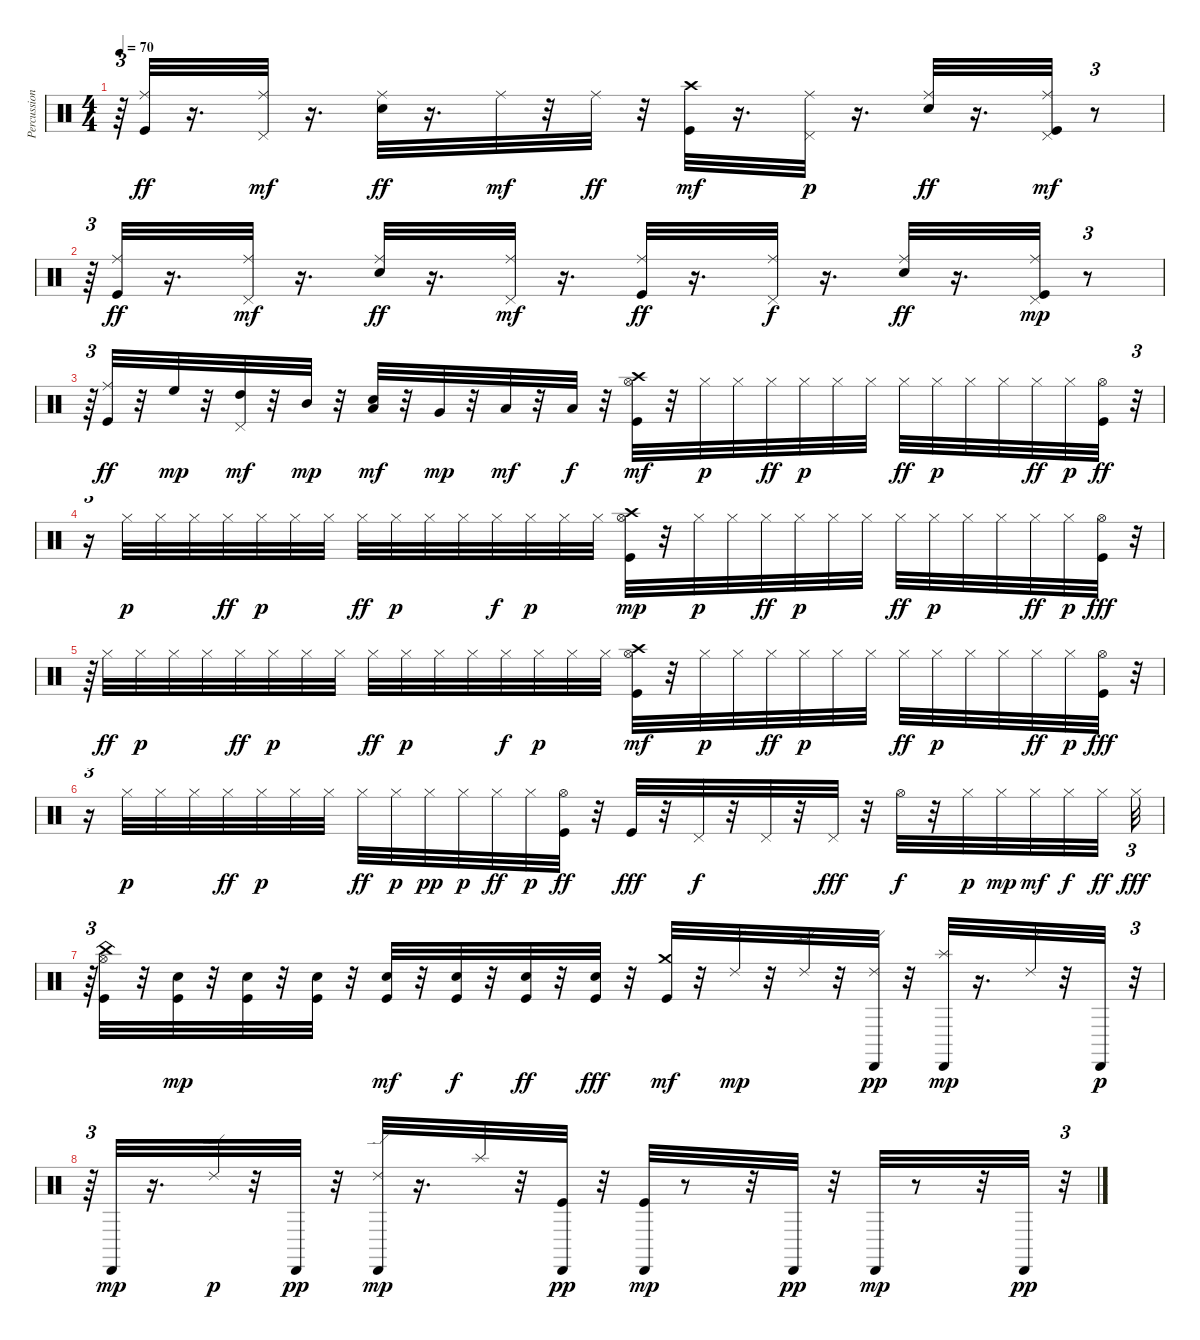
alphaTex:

\track ("Percussioni" "Percussion") {instrument percussion}
\staff {score}
\articulation defaults
\ts (4 4)
\tempo 70
\clef neutral
\ks c
r.64{tu (3 2) dy mp} ("Kick (hit)" "Ride (middle)").32{dy ff} r.16{d} ("Pedal Hi-Hat (hit)" "Ride (middle)").32{dy mf} r.16{d} ("Electric Snare (hit)" "Ride (middle)").32{dy ff} r.16{d} "Ride (middle)".32{dy mf} r.32 "Ride (middle)".32{dy ff} r.32 ("Kick (hit)" "Crash high (hit)").32{dy mf} r.16{d} ("Pedal Hi-Hat (hit)" "Ride (middle)").32{dy p} r.16{d} ("Electric Snare (hit)" "Ride (middle)").32{dy ff} r.16{d} ("Kick (hit)" "Pedal Hi-Hat (hit)" "Ride (middle)").32{dy mf} r.8{tu (3 2)} |
r.64{tu (3 2)} ("Kick (hit)" "Ride (middle)").32{dy ff} r.16{d} ("Pedal Hi-Hat (hit)" "Ride (middle)").32{dy mf} r.16{d} ("Electric Snare (hit)" "Ride (middle)").32{dy ff} r.16{d} ("Pedal Hi-Hat (hit)" "Ride (middle)").32{dy mf} r.16{d} ("Kick (hit)" "Ride (middle)").32{dy ff} r.16{d} ("Pedal Hi-Hat (hit)" "Ride (middle)").32{dy f} r.16{d} ("Electric Snare (hit)" "Ride (middle)").32{dy ff} r.16{d} ("Kick (hit)" "Pedal Hi-Hat (hit)" "Ride (middle)").32{dy mp} r.8{tu (3 2)} |
r.64{tu (3 2)} ("Kick (hit)" "Ride (middle)").32{dy ff} r.32 "High Floor Tom (hit)".32{dy mp} r.32 ("Pedal Hi-Hat (hit)" "High Tom (hit)").32{dy mf} r.32 "Mid Tom (hit)".32{dy mp} r.32 ("Electric Snare (hit)" "Low Tom (hit)").32{dy mf} r.32 "Very Low Tom (hit)".32{dy mp} r.32 "Low Floor Tom (hit)".32{dy mf} r.32 "Low Floor Tom (hit)".32{dy f} r.32 ("Kick (hit)" "Hi-Hat (open)" "Crash high (hit)").32{dy mf} r.32 "Hi-Hat (closed)".32{dy p} "Hi-Hat (closed)".32 "Hi-Hat (closed)".32{dy ff} "Hi-Hat (closed)".32{dy p} "Hi-Hat (closed)".32 "Hi-Hat (closed)".32 "Hi-Hat (closed)".32{dy ff} "Hi-Hat (closed)".32{dy p} "Hi-Hat (closed)".32 "Hi-Hat (closed)".32 "Hi-Hat (closed)".32{dy ff} "Hi-Hat (closed)".32{dy p} ("Kick (hit)" "Hi-Hat (open)").32{dy ff} r.32{tu (3 2)} |
r.16{tu (3 2)} "Hi-Hat (closed)".32{dy p} "Hi-Hat (closed)".32 "Hi-Hat (closed)".32 "Hi-Hat (closed)".32{dy ff} "Hi-Hat (closed)".32{dy p} "Hi-Hat (closed)".32 "Hi-Hat (closed)".32 "Hi-Hat (closed)".32{dy ff} "Hi-Hat (closed)".32{dy p} "Hi-Hat (closed)".32 "Hi-Hat (closed)".32 "Hi-Hat (closed)".32{dy f} "Hi-Hat (closed)".32{dy p} "Hi-Hat (closed)".32 "Hi-Hat (closed)".32 ("Kick (hit)" "Hi-Hat (open)" "Crash high (hit)").32{dy mp} r.32 "Hi-Hat (closed)".32{dy p} "Hi-Hat (closed)".32 "Hi-Hat (closed)".32{dy ff} "Hi-Hat (closed)".32{dy p} "Hi-Hat (closed)".32 "Hi-Hat (closed)".32 "Hi-Hat (closed)".32{dy ff} "Hi-Hat (closed)".32{dy p} "Hi-Hat (closed)".32 "Hi-Hat (closed)".32 "Hi-Hat (closed)".32{dy ff} "Hi-Hat (closed)".32{dy p} ("Kick (hit)" "Hi-Hat (open)").32{dy fff} r.32{tu (3 2)} |
r.64{tu (3 2)} "Hi-Hat (closed)".32{dy ff} "Hi-Hat (closed)".32{dy p} "Hi-Hat (closed)".32 "Hi-Hat (closed)".32 "Hi-Hat (closed)".32{dy ff} "Hi-Hat (closed)".32{dy p} "Hi-Hat (closed)".32 "Hi-Hat (closed)".32 "Hi-Hat (closed)".32{dy ff} "Hi-Hat (closed)".32{dy p} "Hi-Hat (closed)".32 "Hi-Hat (closed)".32 "Hi-Hat (closed)".32{dy f} "Hi-Hat (closed)".32{dy p} "Hi-Hat (closed)".32 "Hi-Hat (closed)".32 ("Kick (hit)" "Hi-Hat (open)" "Crash high (hit)").32{dy mf} r.32 "Hi-Hat (closed)".32{dy p} "Hi-Hat (closed)".32 "Hi-Hat (closed)".32{dy ff} "Hi-Hat (closed)".32{dy p} "Hi-Hat (closed)".32 "Hi-Hat (closed)".32 "Hi-Hat (closed)".32{dy ff} "Hi-Hat (closed)".32{dy p} "Hi-Hat (closed)".32 "Hi-Hat (closed)".32 "Hi-Hat (closed)".32{dy ff} "Hi-Hat (closed)".32{dy p} ("Kick (hit)" "Hi-Hat (open)").32{dy fff} r.32{tu (3 2)} |
r.16{tu (3 2)} "Hi-Hat (closed)".32{dy p} "Hi-Hat (closed)".32 "Hi-Hat (closed)".32 "Hi-Hat (closed)".32{dy ff} "Hi-Hat (closed)".32{dy p} "Hi-Hat (closed)".32 "Hi-Hat (closed)".32 "Hi-Hat (closed)".32{dy ff} "Hi-Hat (closed)".32{dy p} "Hi-Hat (closed)".32{dy pp} "Hi-Hat (closed)".32{dy p} "Hi-Hat (closed)".32{dy ff} "Hi-Hat (closed)".32{dy p} ("Kick (hit)" "Hi-Hat (open)").32{dy ff} r.32 "Kick (hit)".32{dy fff} r.32 "Pedal Hi-Hat (hit)".32{dy f} r.32 "Pedal Hi-Hat (hit)".32 r.32 "Pedal Hi-Hat (hit)".32{dy fff} r.32 "Hi-Hat (open)".32{dy f} r.32 "Hi-Hat (closed)".32{dy p} "Hi-Hat (closed)".32{dy mp} "Hi-Hat (closed)".32{dy mf} "Hi-Hat (closed)".32{dy f} "Hi-Hat (closed)".32{dy ff} "Hi-Hat (closed)".32{tu (3 2) dy fff} |
r.64{tu (3 2)} ("Kick (hit)" "Hi-Hat (open)" "China (hit)").32 r.32 ("Kick (hit)" "Electric Snare (hit)").32{dy mp} r.32 ("Kick (hit)" "Electric Snare (hit)").32 r.32 ("Kick (hit)" "Electric Snare (hit)").32 r.32 ("Kick (hit)" "Electric Snare (hit)").32{dy mf} r.32 ("Kick (hit)" "Electric Snare (hit)").32{dy f} r.32 ("Kick (hit)" "Electric Snare (hit)").32{dy ff} r.32 ("Kick (hit)" "Electric Snare (hit)").32{dy fff} r.32 ("Kick (hit)" "Crash medium (hit)").32{dy mf} r.32 "Ride (edge) 2".32{dy mp} r.32 "Ride (edge) 2".32 r.32 ("Ride (edge) 2" "Cabasa (hit)").32{dy pp} r.32 ("Splash (hit)" "Cabasa (hit)").32{dy mp} r.16{d} "Ride (edge) 2".32 r.32 "Cabasa (hit)".32{dy p} r.32{tu (3 2)} |
r.64{tu (3 2)} "Cabasa (hit)".32{dy mp} r.16{d} "Ride (edge) 2".32{dy p} r.32 "Cabasa (hit)".32{dy pp} r.32 ("Ride (edge) 2" "Cabasa (hit)").32{dy mp} r.16{d} "Splash (hit)".32 r.32 ("Kick (hit)" "Cabasa (hit)").32{dy pp} r.32 ("Kick (hit)" "Cabasa (hit)").32{dy mp} r.8 r.32 "Cabasa (hit)".32{dy pp} r.32 "Cabasa (hit)".32{dy mp} r.8 r.32 "Cabasa (hit)".32{dy pp} r.32{tu (3 2)}
